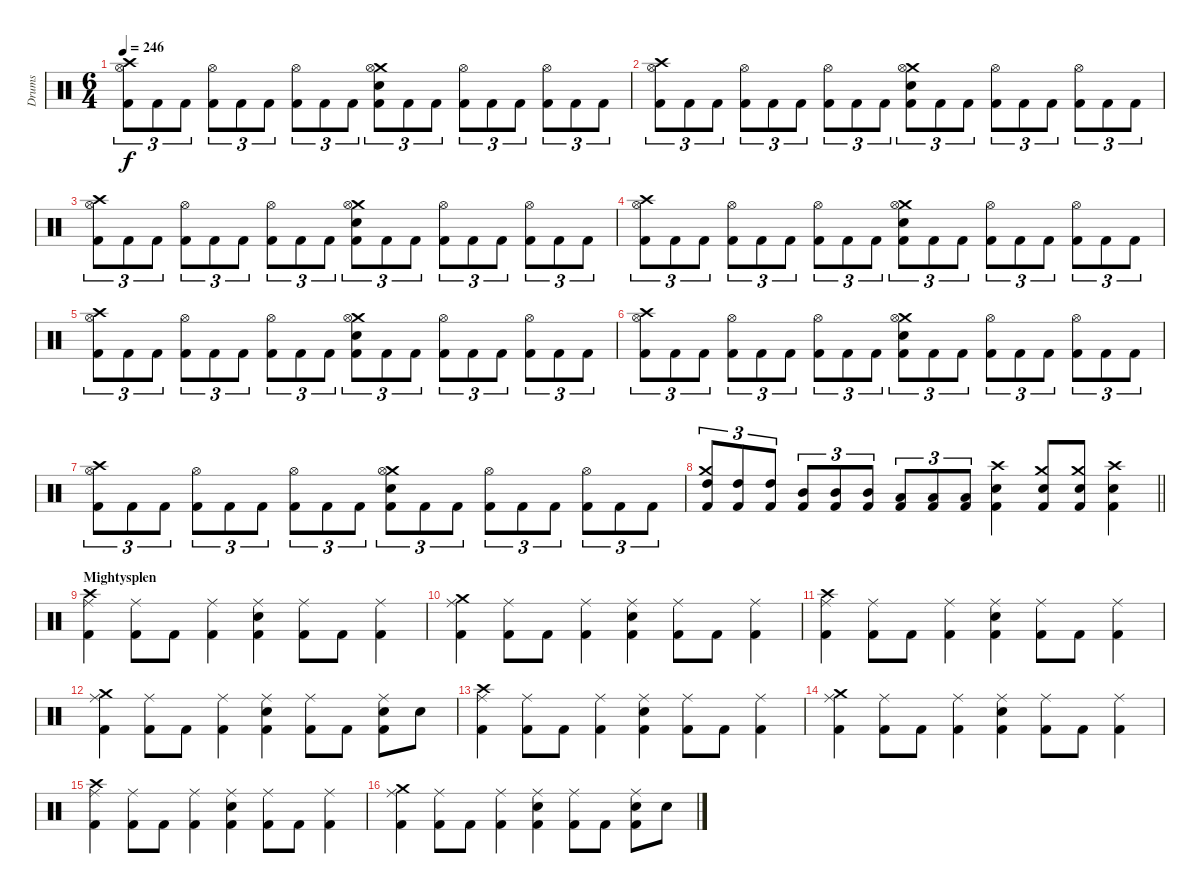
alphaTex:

\track ("Drums" "Drums") {instrument percussion}
\staff {score}
\articulation defaults
\ts (6 4)
\tempo 246
\clef neutral
\ks c
("Crash high (hit)" "Hi-Hat (open)" "Kick (hit) 2").8{tu (3 2) dy f} "Kick (hit) 2".8{tu (3 2)} "Kick (hit) 2".8{tu (3 2)} ("Hi-Hat (open)" "Kick (hit) 2").8{tu (3 2)} "Kick (hit) 2".8{tu (3 2)} "Kick (hit) 2".8{tu (3 2)} ("Hi-Hat (open)" "Kick (hit) 2").8{tu (3 2)} "Kick (hit) 2".8{tu (3 2)} "Kick (hit) 2".8{tu (3 2)} ("Crash medium (hit)" "Hi-Hat (open)" "Snare (hit) 2" "Kick (hit) 2").8{tu (3 2)} "Kick (hit) 2".8{tu (3 2)} "Kick (hit) 2".8{tu (3 2)} ("Hi-Hat (open)" "Kick (hit) 2").8{tu (3 2)} "Kick (hit) 2".8{tu (3 2)} "Kick (hit) 2".8{tu (3 2)} ("Hi-Hat (open)" "Kick (hit) 2").8{tu (3 2)} "Kick (hit) 2".8{tu (3 2)} "Kick (hit) 2".8{tu (3 2)} |
("Crash high (hit)" "Hi-Hat (open)" "Kick (hit) 2").8{tu (3 2)} "Kick (hit) 2".8{tu (3 2)} "Kick (hit) 2".8{tu (3 2)} ("Hi-Hat (open)" "Kick (hit) 2").8{tu (3 2)} "Kick (hit) 2".8{tu (3 2)} "Kick (hit) 2".8{tu (3 2)} ("Hi-Hat (open)" "Kick (hit) 2").8{tu (3 2)} "Kick (hit) 2".8{tu (3 2)} "Kick (hit) 2".8{tu (3 2)} ("Crash medium (hit)" "Hi-Hat (open)" "Snare (hit) 2" "Kick (hit) 2").8{tu (3 2)} "Kick (hit) 2".8{tu (3 2)} "Kick (hit) 2".8{tu (3 2)} ("Hi-Hat (open)" "Kick (hit) 2").8{tu (3 2)} "Kick (hit) 2".8{tu (3 2)} "Kick (hit) 2".8{tu (3 2)} ("Hi-Hat (open)" "Kick (hit) 2").8{tu (3 2)} "Kick (hit) 2".8{tu (3 2)} "Kick (hit) 2".8{tu (3 2)} |
("Crash high (hit)" "Hi-Hat (open)" "Kick (hit) 2").8{tu (3 2)} "Kick (hit) 2".8{tu (3 2)} "Kick (hit) 2".8{tu (3 2)} ("Hi-Hat (open)" "Kick (hit) 2").8{tu (3 2)} "Kick (hit) 2".8{tu (3 2)} "Kick (hit) 2".8{tu (3 2)} ("Hi-Hat (open)" "Kick (hit) 2").8{tu (3 2)} "Kick (hit) 2".8{tu (3 2)} "Kick (hit) 2".8{tu (3 2)} ("Crash medium (hit)" "Hi-Hat (open)" "Snare (hit) 2" "Kick (hit) 2").8{tu (3 2)} "Kick (hit) 2".8{tu (3 2)} "Kick (hit) 2".8{tu (3 2)} ("Hi-Hat (open)" "Kick (hit) 2").8{tu (3 2)} "Kick (hit) 2".8{tu (3 2)} "Kick (hit) 2".8{tu (3 2)} ("Hi-Hat (open)" "Kick (hit) 2").8{tu (3 2)} "Kick (hit) 2".8{tu (3 2)} "Kick (hit) 2".8{tu (3 2)} |
("Crash high (hit)" "Hi-Hat (open)" "Kick (hit) 2").8{tu (3 2)} "Kick (hit) 2".8{tu (3 2)} "Kick (hit) 2".8{tu (3 2)} ("Hi-Hat (open)" "Kick (hit) 2").8{tu (3 2)} "Kick (hit) 2".8{tu (3 2)} "Kick (hit) 2".8{tu (3 2)} ("Hi-Hat (open)" "Kick (hit) 2").8{tu (3 2)} "Kick (hit) 2".8{tu (3 2)} "Kick (hit) 2".8{tu (3 2)} ("Crash medium (hit)" "Hi-Hat (open)" "Snare (hit) 2" "Kick (hit) 2").8{tu (3 2)} "Kick (hit) 2".8{tu (3 2)} "Kick (hit) 2".8{tu (3 2)} ("Hi-Hat (open)" "Kick (hit) 2").8{tu (3 2)} "Kick (hit) 2".8{tu (3 2)} "Kick (hit) 2".8{tu (3 2)} ("Hi-Hat (open)" "Kick (hit) 2").8{tu (3 2)} "Kick (hit) 2".8{tu (3 2)} "Kick (hit) 2".8{tu (3 2)} |
("Crash high (hit)" "Hi-Hat (open)" "Kick (hit) 2").8{tu (3 2)} "Kick (hit) 2".8{tu (3 2)} "Kick (hit) 2".8{tu (3 2)} ("Hi-Hat (open)" "Kick (hit) 2").8{tu (3 2)} "Kick (hit) 2".8{tu (3 2)} "Kick (hit) 2".8{tu (3 2)} ("Hi-Hat (open)" "Kick (hit) 2").8{tu (3 2)} "Kick (hit) 2".8{tu (3 2)} "Kick (hit) 2".8{tu (3 2)} ("Crash medium (hit)" "Hi-Hat (open)" "Snare (hit) 2" "Kick (hit) 2").8{tu (3 2)} "Kick (hit) 2".8{tu (3 2)} "Kick (hit) 2".8{tu (3 2)} ("Hi-Hat (open)" "Kick (hit) 2").8{tu (3 2)} "Kick (hit) 2".8{tu (3 2)} "Kick (hit) 2".8{tu (3 2)} ("Hi-Hat (open)" "Kick (hit) 2").8{tu (3 2)} "Kick (hit) 2".8{tu (3 2)} "Kick (hit) 2".8{tu (3 2)} |
("Crash high (hit)" "Hi-Hat (open)" "Kick (hit) 2").8{tu (3 2)} "Kick (hit) 2".8{tu (3 2)} "Kick (hit) 2".8{tu (3 2)} ("Hi-Hat (open)" "Kick (hit) 2").8{tu (3 2)} "Kick (hit) 2".8{tu (3 2)} "Kick (hit) 2".8{tu (3 2)} ("Hi-Hat (open)" "Kick (hit) 2").8{tu (3 2)} "Kick (hit) 2".8{tu (3 2)} "Kick (hit) 2".8{tu (3 2)} ("Crash medium (hit)" "Hi-Hat (open)" "Snare (hit) 2" "Kick (hit) 2").8{tu (3 2)} "Kick (hit) 2".8{tu (3 2)} "Kick (hit) 2".8{tu (3 2)} ("Hi-Hat (open)" "Kick (hit) 2").8{tu (3 2)} "Kick (hit) 2".8{tu (3 2)} "Kick (hit) 2".8{tu (3 2)} ("Hi-Hat (open)" "Kick (hit) 2").8{tu (3 2)} "Kick (hit) 2".8{tu (3 2)} "Kick (hit) 2".8{tu (3 2)} |
("Crash high (hit)" "Hi-Hat (open)" "Kick (hit) 2").8{tu (3 2)} "Kick (hit) 2".8{tu (3 2)} "Kick (hit) 2".8{tu (3 2)} ("Hi-Hat (open)" "Kick (hit) 2").8{tu (3 2)} "Kick (hit) 2".8{tu (3 2)} "Kick (hit) 2".8{tu (3 2)} ("Hi-Hat (open)" "Kick (hit) 2").8{tu (3 2)} "Kick (hit) 2".8{tu (3 2)} "Kick (hit) 2".8{tu (3 2)} ("Crash medium (hit)" "Hi-Hat (open)" "Snare (hit) 2" "Kick (hit) 2").8{tu (3 2)} "Kick (hit) 2".8{tu (3 2)} "Kick (hit) 2".8{tu (3 2)} ("Hi-Hat (open)" "Kick (hit) 2").8{tu (3 2)} "Kick (hit) 2".8{tu (3 2)} "Kick (hit) 2".8{tu (3 2)} ("Hi-Hat (open)" "Kick (hit) 2").8{tu (3 2)} "Kick (hit) 2".8{tu (3 2)} "Kick (hit) 2".8{tu (3 2)} |
\barLineRight lightlight
("Crash medium (hit)" "High Tom (hit)" "Kick (hit) 2").8{tu (3 2)} ("High Tom (hit)" "Kick (hit) 2").8{tu (3 2)} ("High Tom (hit)" "Kick (hit) 2").8{tu (3 2)} ("Mid Tom (hit)" "Kick (hit) 2").8{tu (3 2)} ("Mid Tom (hit)" "Kick (hit) 2").8{tu (3 2)} ("Mid Tom (hit)" "Kick (hit) 2").8{tu (3 2)} ("Low Tom (hit)" "Kick (hit) 2").8{tu (3 2)} ("Low Tom (hit)" "Kick (hit) 2").8{tu (3 2)} ("Low Tom (hit)" "Kick (hit) 2").8{tu (3 2)} ("Crash high (hit)" "Snare (hit) 2" "Kick (hit) 2").4 ("Crash medium (hit)" "Snare (hit) 2" "Kick (hit) 2").8 ("Crash medium (hit)" "Snare (hit) 2" "Kick (hit) 2").8 ("Crash high (hit)" "Snare (hit) 2" "Kick (hit) 2").4 |
\section ("" "Mightysplen")
("Crash high (hit)" "Ride (middle)" "Kick (hit) 2").4 ("Ride (middle)" "Kick (hit) 2").8 "Kick (hit) 2".8 ("Ride (middle)" "Kick (hit) 2").4 ("Ride (middle)" "Snare (hit) 2" "Kick (hit) 2").4 ("Ride (middle)" "Kick (hit) 2").8 "Kick (hit) 2".8 ("Ride (middle)" "Kick (hit) 2").4 |
("Crash medium (hit)" "Ride (middle)" "Kick (hit) 2").4 ("Ride (middle)" "Kick (hit) 2").8 "Kick (hit) 2".8 ("Ride (middle)" "Kick (hit) 2").4 ("Ride (middle)" "Snare (hit) 2" "Kick (hit) 2").4 ("Ride (middle)" "Kick (hit) 2").8 "Kick (hit) 2".8 ("Ride (middle)" "Kick (hit) 2").4 |
("Crash high (hit)" "Ride (middle)" "Kick (hit) 2").4 ("Ride (middle)" "Kick (hit) 2").8 "Kick (hit) 2".8 ("Ride (middle)" "Kick (hit) 2").4 ("Ride (middle)" "Snare (hit) 2" "Kick (hit) 2").4 ("Ride (middle)" "Kick (hit) 2").8 "Kick (hit) 2".8 ("Ride (middle)" "Kick (hit) 2").4 |
("Crash medium (hit)" "Ride (middle)" "Kick (hit) 2").4 ("Ride (middle)" "Kick (hit) 2").8 "Kick (hit) 2".8 ("Ride (middle)" "Kick (hit) 2").4 ("Ride (middle)" "Snare (hit) 2" "Kick (hit) 2").4 ("Ride (middle)" "Kick (hit) 2").8 "Kick (hit) 2".8 ("Ride (middle)" "Snare (hit) 2" "Kick (hit) 2").8 "Snare (hit) 2".8 |
("Crash high (hit)" "Ride (middle)" "Kick (hit) 2").4 ("Ride (middle)" "Kick (hit) 2").8 "Kick (hit) 2".8 ("Ride (middle)" "Kick (hit) 2").4 ("Ride (middle)" "Snare (hit) 2" "Kick (hit) 2").4 ("Ride (middle)" "Kick (hit) 2").8 "Kick (hit) 2".8 ("Ride (middle)" "Kick (hit) 2").4 |
("Crash medium (hit)" "Ride (middle)" "Kick (hit) 2").4 ("Ride (middle)" "Kick (hit) 2").8 "Kick (hit) 2".8 ("Ride (middle)" "Kick (hit) 2").4 ("Ride (middle)" "Snare (hit) 2" "Kick (hit) 2").4 ("Ride (middle)" "Kick (hit) 2").8 "Kick (hit) 2".8 ("Ride (middle)" "Kick (hit) 2").4 |
("Crash high (hit)" "Ride (middle)" "Kick (hit) 2").4 ("Ride (middle)" "Kick (hit) 2").8 "Kick (hit) 2".8 ("Ride (middle)" "Kick (hit) 2").4 ("Ride (middle)" "Snare (hit) 2" "Kick (hit) 2").4 ("Ride (middle)" "Kick (hit) 2").8 "Kick (hit) 2".8 ("Ride (middle)" "Kick (hit) 2").4 |
("Crash medium (hit)" "Ride (middle)" "Kick (hit) 2").4 ("Ride (middle)" "Kick (hit) 2").8 "Kick (hit) 2".8 ("Ride (middle)" "Kick (hit) 2").4 ("Ride (middle)" "Snare (hit) 2" "Kick (hit) 2").4 ("Ride (middle)" "Kick (hit) 2").8 "Kick (hit) 2".8 ("Ride (middle)" "Snare (hit) 2" "Kick (hit) 2").8 "Snare (hit) 2".8
